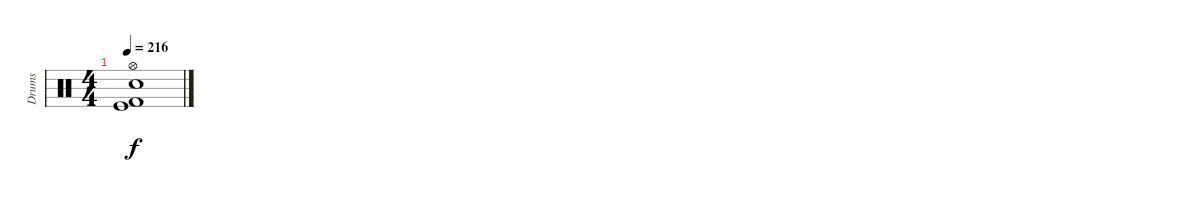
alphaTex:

\track ("Drums" "Drums") {instrument percussion}
\staff {score}
\articulation defaults
\ts (4 4)
\tempo 216
\clef neutral
\ks c
("Hi-Hat (open)" "Electric Snare (hit)" "Kick (hit)" "Kick (hit) 2").1{dy f}
